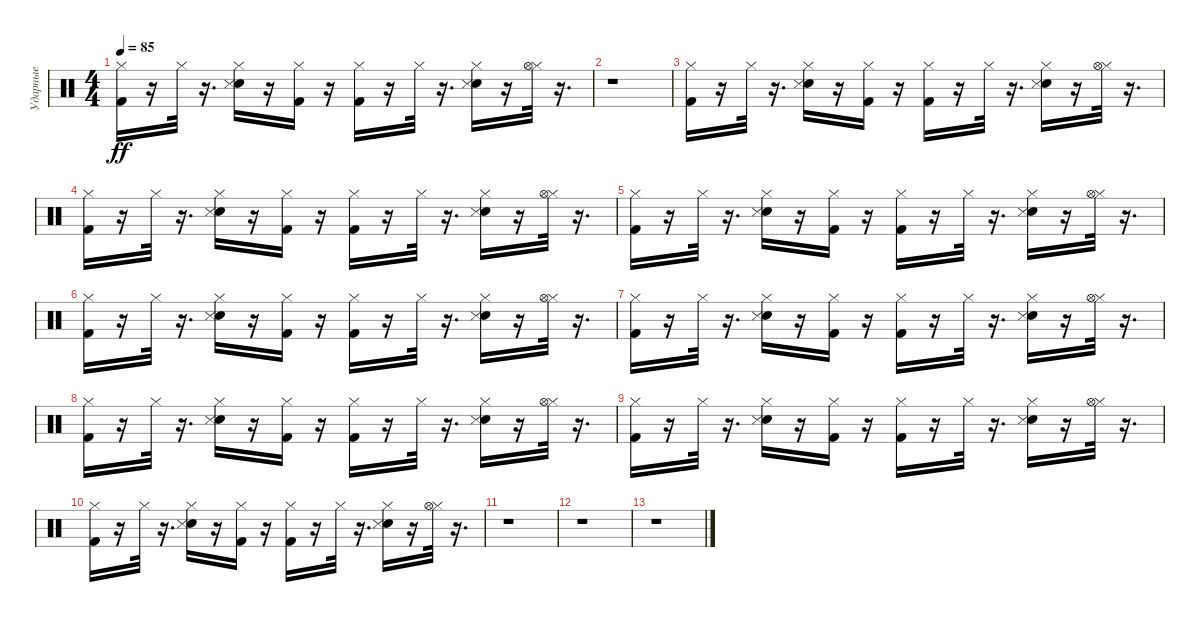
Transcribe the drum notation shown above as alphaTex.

\track ("Ударные" "Ударные") {instrument percussion}
\staff {score}
\articulation defaults
\ts (4 4)
\tempo 85
\clef neutral
\ks c
("Hi-Hat (closed)" "Kick (hit) 2").16{dy ff} r.16 "Hi-Hat (closed)".32 r.16{d} ("Electric Snare (hit)" "Hi-Hat (closed)" "Snare (side stick) 3").16 r.16 ("Kick (hit) 2" "Hi-Hat (closed)").16 r.16 ("Kick (hit) 2" "Hi-Hat (closed)").16 r.16 "Hi-Hat (closed)".32 r.16{d} ("Electric Snare (hit)" "Hi-Hat (closed)" "Snare (side stick) 3").16 r.16 ("Hi-Hat (closed)" "Hi-Hat (open)").32 r.16{d} |
r.1 |
("Hi-Hat (closed)" "Kick (hit) 2").16 r.16 "Hi-Hat (closed)".32 r.16{d} ("Electric Snare (hit)" "Hi-Hat (closed)" "Snare (side stick) 3").16 r.16 ("Kick (hit) 2" "Hi-Hat (closed)").16 r.16 ("Kick (hit) 2" "Hi-Hat (closed)").16 r.16 "Hi-Hat (closed)".32 r.16{d} ("Electric Snare (hit)" "Hi-Hat (closed)" "Snare (side stick) 3").16 r.16 ("Hi-Hat (closed)" "Hi-Hat (open)").32 r.16{d} |
("Hi-Hat (closed)" "Kick (hit) 2").16 r.16 "Hi-Hat (closed)".32 r.16{d} ("Electric Snare (hit)" "Hi-Hat (closed)" "Snare (side stick) 3").16 r.16 ("Kick (hit) 2" "Hi-Hat (closed)").16 r.16 ("Kick (hit) 2" "Hi-Hat (closed)").16 r.16 "Hi-Hat (closed)".32 r.16{d} ("Electric Snare (hit)" "Hi-Hat (closed)" "Snare (side stick) 3").16 r.16 ("Hi-Hat (closed)" "Hi-Hat (open)").32 r.16{d} |
("Hi-Hat (closed)" "Kick (hit) 2").16 r.16 "Hi-Hat (closed)".32 r.16{d} ("Electric Snare (hit)" "Hi-Hat (closed)" "Snare (side stick) 3").16 r.16 ("Kick (hit) 2" "Hi-Hat (closed)").16 r.16 ("Kick (hit) 2" "Hi-Hat (closed)").16 r.16 "Hi-Hat (closed)".32 r.16{d} ("Electric Snare (hit)" "Hi-Hat (closed)" "Snare (side stick) 3").16 r.16 ("Hi-Hat (closed)" "Hi-Hat (open)").32 r.16{d} |
("Hi-Hat (closed)" "Kick (hit) 2").16 r.16 "Hi-Hat (closed)".32 r.16{d} ("Electric Snare (hit)" "Hi-Hat (closed)" "Snare (side stick) 3").16 r.16 ("Kick (hit) 2" "Hi-Hat (closed)").16 r.16 ("Kick (hit) 2" "Hi-Hat (closed)").16 r.16 "Hi-Hat (closed)".32 r.16{d} ("Electric Snare (hit)" "Hi-Hat (closed)" "Snare (side stick) 3").16 r.16 ("Hi-Hat (closed)" "Hi-Hat (open)").32 r.16{d} |
("Hi-Hat (closed)" "Kick (hit) 2").16 r.16 "Hi-Hat (closed)".32 r.16{d} ("Electric Snare (hit)" "Hi-Hat (closed)" "Snare (side stick) 3").16 r.16 ("Kick (hit) 2" "Hi-Hat (closed)").16 r.16 ("Kick (hit) 2" "Hi-Hat (closed)").16 r.16 "Hi-Hat (closed)".32 r.16{d} ("Electric Snare (hit)" "Hi-Hat (closed)" "Snare (side stick) 3").16 r.16 ("Hi-Hat (closed)" "Hi-Hat (open)").32 r.16{d} |
("Hi-Hat (closed)" "Kick (hit) 2").16 r.16 "Hi-Hat (closed)".32 r.16{d} ("Electric Snare (hit)" "Hi-Hat (closed)" "Snare (side stick) 3").16 r.16 ("Kick (hit) 2" "Hi-Hat (closed)").16 r.16 ("Kick (hit) 2" "Hi-Hat (closed)").16 r.16 "Hi-Hat (closed)".32 r.16{d} ("Electric Snare (hit)" "Hi-Hat (closed)" "Snare (side stick) 3").16 r.16 ("Hi-Hat (closed)" "Hi-Hat (open)").32 r.16{d} |
("Hi-Hat (closed)" "Kick (hit) 2").16 r.16 "Hi-Hat (closed)".32 r.16{d} ("Electric Snare (hit)" "Hi-Hat (closed)" "Snare (side stick) 3").16 r.16 ("Kick (hit) 2" "Hi-Hat (closed)").16 r.16 ("Kick (hit) 2" "Hi-Hat (closed)").16 r.16 "Hi-Hat (closed)".32 r.16{d} ("Electric Snare (hit)" "Hi-Hat (closed)" "Snare (side stick) 3").16 r.16 ("Hi-Hat (closed)" "Hi-Hat (open)").32 r.16{d} |
("Hi-Hat (closed)" "Kick (hit) 2").16 r.16 "Hi-Hat (closed)".32 r.16{d} ("Electric Snare (hit)" "Hi-Hat (closed)" "Snare (side stick) 3").16 r.16 ("Kick (hit) 2" "Hi-Hat (closed)").16 r.16 ("Kick (hit) 2" "Hi-Hat (closed)").16 r.16 "Hi-Hat (closed)".32 r.16{d} ("Electric Snare (hit)" "Hi-Hat (closed)" "Snare (side stick) 3").16 r.16 ("Hi-Hat (closed)" "Hi-Hat (open)").32 r.16{d} |
r.1 |
r.1 |
r.1
